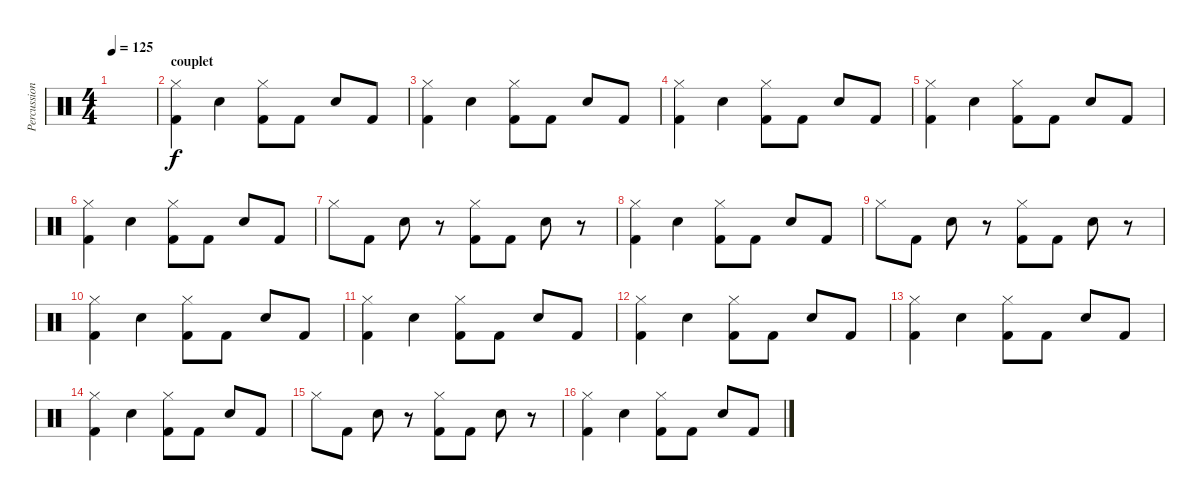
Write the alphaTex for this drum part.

\track ("Percussions" "Percussion") {instrument percussion}
\staff {score}
\articulation defaults
\ts (4 4)
\tempo 125
\clef neutral
\ks c
|
\section ("" "couplet")
("Hi-Hat (closed)" "Kick (hit) 2").4 "Snare (hit) 2".4 ("Hi-Hat (closed)" "Kick (hit) 2").8 "Kick (hit) 2".8 "Snare (hit) 2".8 "Kick (hit) 2".8 |
("Hi-Hat (closed)" "Kick (hit) 2").4 "Snare (hit) 2".4 ("Hi-Hat (closed)" "Kick (hit) 2").8 "Kick (hit) 2".8 "Snare (hit) 2".8 "Kick (hit) 2".8 |
("Hi-Hat (closed)" "Kick (hit) 2").4 "Snare (hit) 2".4 ("Hi-Hat (closed)" "Kick (hit) 2").8 "Kick (hit) 2".8 "Snare (hit) 2".8 "Kick (hit) 2".8 |
("Hi-Hat (closed)" "Kick (hit) 2").4 "Snare (hit) 2".4 ("Hi-Hat (closed)" "Kick (hit) 2").8 "Kick (hit) 2".8 "Snare (hit) 2".8 "Kick (hit) 2".8 |
("Hi-Hat (closed)" "Kick (hit) 2").4 "Snare (hit) 2".4 ("Hi-Hat (closed)" "Kick (hit) 2").8 "Kick (hit) 2".8 "Snare (hit) 2".8 "Kick (hit) 2".8 |
"Hi-Hat (closed)".8 "Kick (hit) 2".8 "Snare (hit) 2".8 r.8 ("Hi-Hat (closed)" "Kick (hit) 2").8 "Kick (hit) 2".8 "Snare (hit) 2".8 r.8 |
("Hi-Hat (closed)" "Kick (hit) 2").4 "Snare (hit) 2".4 ("Hi-Hat (closed)" "Kick (hit) 2").8 "Kick (hit) 2".8 "Snare (hit) 2".8 "Kick (hit) 2".8 |
"Hi-Hat (closed)".8 "Kick (hit) 2".8 "Snare (hit) 2".8 r.8 ("Hi-Hat (closed)" "Kick (hit) 2").8 "Kick (hit) 2".8 "Snare (hit) 2".8 r.8 |
("Hi-Hat (closed)" "Kick (hit) 2").4 "Snare (hit) 2".4 ("Hi-Hat (closed)" "Kick (hit) 2").8 "Kick (hit) 2".8 "Snare (hit) 2".8 "Kick (hit) 2".8 |
("Hi-Hat (closed)" "Kick (hit) 2").4 "Snare (hit) 2".4 ("Hi-Hat (closed)" "Kick (hit) 2").8 "Kick (hit) 2".8 "Snare (hit) 2".8 "Kick (hit) 2".8 |
("Hi-Hat (closed)" "Kick (hit) 2").4 "Snare (hit) 2".4 ("Hi-Hat (closed)" "Kick (hit) 2").8 "Kick (hit) 2".8 "Snare (hit) 2".8 "Kick (hit) 2".8 |
("Hi-Hat (closed)" "Kick (hit) 2").4 "Snare (hit) 2".4 ("Hi-Hat (closed)" "Kick (hit) 2").8 "Kick (hit) 2".8 "Snare (hit) 2".8 "Kick (hit) 2".8 |
("Hi-Hat (closed)" "Kick (hit) 2").4 "Snare (hit) 2".4 ("Hi-Hat (closed)" "Kick (hit) 2").8 "Kick (hit) 2".8 "Snare (hit) 2".8 "Kick (hit) 2".8 |
"Hi-Hat (closed)".8 "Kick (hit) 2".8 "Snare (hit) 2".8 r.8 ("Hi-Hat (closed)" "Kick (hit) 2").8 "Kick (hit) 2".8 "Snare (hit) 2".8 r.8 |
("Hi-Hat (closed)" "Kick (hit) 2").4 "Snare (hit) 2".4 ("Hi-Hat (closed)" "Kick (hit) 2").8 "Kick (hit) 2".8 "Snare (hit) 2".8 "Kick (hit) 2".8
